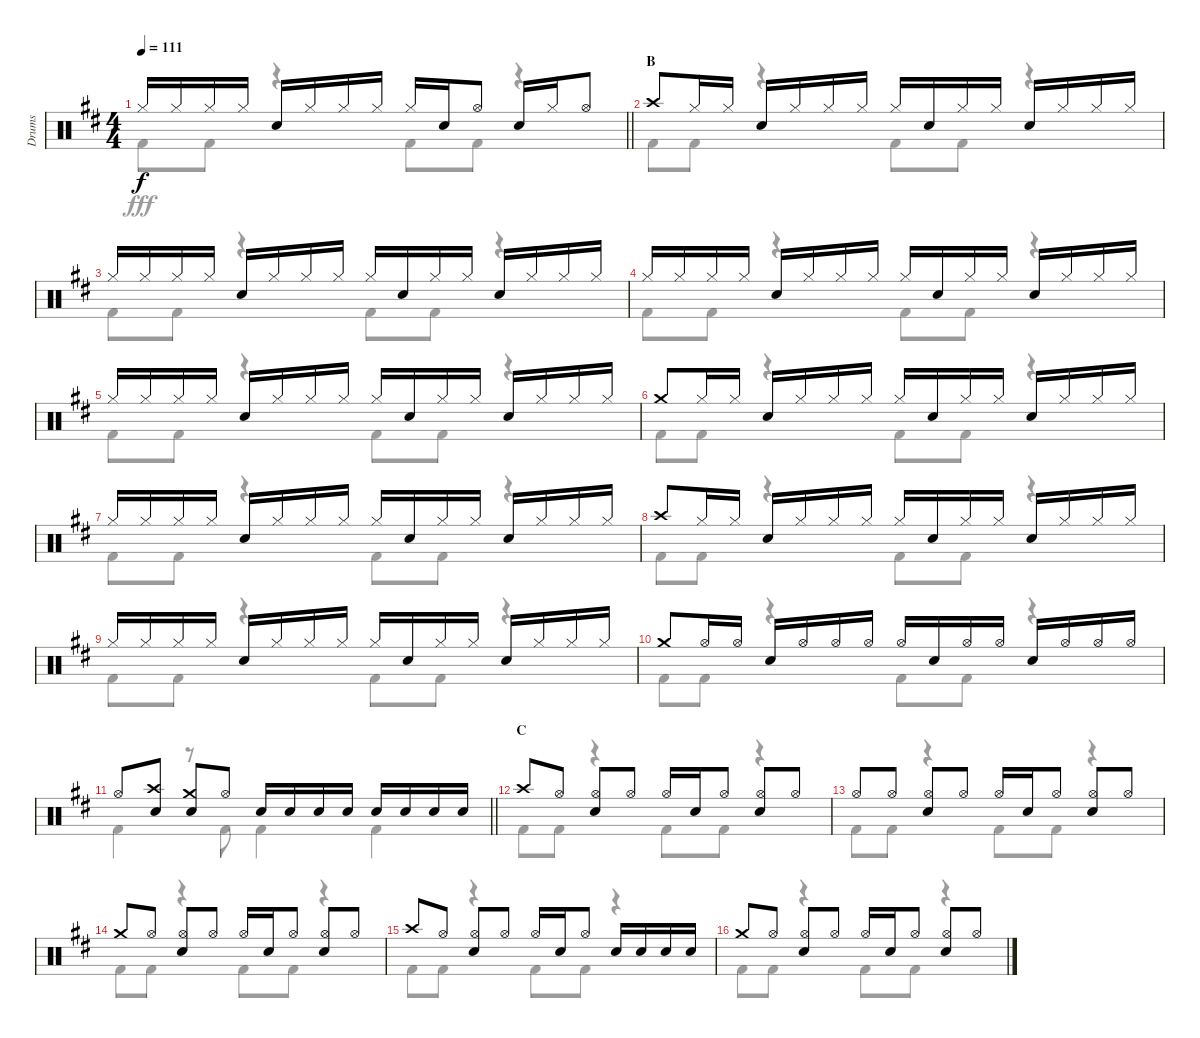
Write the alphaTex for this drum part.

\track ("Drums" "Drums") {instrument percussion}
\staff {score}
\articulation defaults
\voice
\ts (4 4)
\tempo 111
\clef neutral
\barLineRight lightlight
\ks d "Hi-Hat (closed)".16{dy f} "Hi-Hat (closed)".16 "Hi-Hat (closed)".16 "Hi-Hat (closed)".16 "Snare (hit) 2".16 "Hi-Hat (closed)".16 "Hi-Hat (closed)".16 "Hi-Hat (closed)".16 "Hi-Hat (closed)".16 "Snare (hit) 2".16 "Hi-Hat (open)".8 "Snare (hit) 2".16 "Hi-Hat (closed)".16 "Hi-Hat (open)".8
|
\section ("" "B")
"Crash high (hit)".8 "Hi-Hat (closed)".16 "Hi-Hat (closed)".16 "Snare (hit) 2".16 "Hi-Hat (closed)".16 "Hi-Hat (closed)".16 "Hi-Hat (closed)".16 "Hi-Hat (closed)".16 "Snare (hit) 2".16 "Hi-Hat (closed)".16 "Hi-Hat (closed)".16 "Snare (hit) 2".16 "Hi-Hat (closed)".16 "Hi-Hat (closed)".16 "Hi-Hat (closed)".16 |
"Hi-Hat (closed)".16 "Hi-Hat (closed)".16 "Hi-Hat (closed)".16 "Hi-Hat (closed)".16 "Snare (hit) 2".16 "Hi-Hat (closed)".16 "Hi-Hat (closed)".16 "Hi-Hat (closed)".16 "Hi-Hat (closed)".16 "Snare (hit) 2".16 "Hi-Hat (closed)".16 "Hi-Hat (closed)".16 "Snare (hit) 2".16 "Hi-Hat (closed)".16 "Hi-Hat (closed)".16 "Hi-Hat (closed)".16 |
"Hi-Hat (closed)".16 "Hi-Hat (closed)".16 "Hi-Hat (closed)".16 "Hi-Hat (closed)".16 "Snare (hit) 2".16 "Hi-Hat (closed)".16 "Hi-Hat (closed)".16 "Hi-Hat (closed)".16 "Hi-Hat (closed)".16 "Snare (hit) 2".16 "Hi-Hat (closed)".16 "Hi-Hat (closed)".16 "Snare (hit) 2".16 "Hi-Hat (closed)".16 "Hi-Hat (closed)".16 "Hi-Hat (closed)".16 |
"Hi-Hat (closed)".16 "Hi-Hat (closed)".16 "Hi-Hat (closed)".16 "Hi-Hat (closed)".16 "Snare (hit) 2".16 "Hi-Hat (closed)".16 "Hi-Hat (closed)".16 "Hi-Hat (closed)".16 "Hi-Hat (closed)".16 "Snare (hit) 2".16 "Hi-Hat (closed)".16 "Hi-Hat (closed)".16 "Snare (hit) 2".16 "Hi-Hat (closed)".16 "Hi-Hat (closed)".16 "Hi-Hat (closed)".16 |
"Crash medium (hit)".8 "Hi-Hat (closed)".16 "Hi-Hat (closed)".16 "Snare (hit) 2".16 "Hi-Hat (closed)".16 "Hi-Hat (closed)".16 "Hi-Hat (closed)".16 "Hi-Hat (closed)".16 "Snare (hit) 2".16 "Hi-Hat (closed)".16 "Hi-Hat (closed)".16 "Snare (hit) 2".16 "Hi-Hat (closed)".16 "Hi-Hat (closed)".16 "Hi-Hat (closed)".16 |
"Hi-Hat (closed)".16 "Hi-Hat (closed)".16 "Hi-Hat (closed)".16 "Hi-Hat (closed)".16 "Snare (hit) 2".16 "Hi-Hat (closed)".16 "Hi-Hat (closed)".16 "Hi-Hat (closed)".16 "Hi-Hat (closed)".16 "Snare (hit) 2".16 "Hi-Hat (closed)".16 "Hi-Hat (closed)".16 "Snare (hit) 2".16 "Hi-Hat (closed)".16 "Hi-Hat (closed)".16 "Hi-Hat (closed)".16 |
"Crash high (hit)".8 "Hi-Hat (closed)".16 "Hi-Hat (closed)".16 "Snare (hit) 2".16 "Hi-Hat (closed)".16 "Hi-Hat (closed)".16 "Hi-Hat (closed)".16 "Hi-Hat (closed)".16 "Snare (hit) 2".16 "Hi-Hat (closed)".16 "Hi-Hat (closed)".16 "Snare (hit) 2".16 "Hi-Hat (closed)".16 "Hi-Hat (closed)".16 "Hi-Hat (closed)".16 |
"Hi-Hat (closed)".16 "Hi-Hat (closed)".16 "Hi-Hat (closed)".16 "Hi-Hat (closed)".16 "Snare (hit) 2".16 "Hi-Hat (closed)".16 "Hi-Hat (closed)".16 "Hi-Hat (closed)".16 "Hi-Hat (closed)".16 "Snare (hit) 2".16 "Hi-Hat (closed)".16 "Hi-Hat (closed)".16 "Snare (hit) 2".16 "Hi-Hat (closed)".16 "Hi-Hat (closed)".16 "Hi-Hat (closed)".16 |
"Crash medium (hit)".8 "Hi-Hat (open)".16 "Hi-Hat (open)".16 "Snare (hit) 2".16 "Hi-Hat (open)".16 "Hi-Hat (open)".16 "Hi-Hat (open)".16 "Hi-Hat (open)".16 "Snare (hit) 2".16 "Hi-Hat (open)".16 "Hi-Hat (open)".16 "Snare (hit) 2".16 "Hi-Hat (open)".16 "Hi-Hat (open)".16 "Hi-Hat (open)".16 |
\barLineRight lightlight "Hi-Hat (open)".8
("Crash high (hit)" "Snare (hit) 2").8 ("Crash medium (hit)" "Snare (hit) 2").8 "Hi-Hat (open)".8 "Snare (hit) 2".16 "Snare (hit) 2".16 "Snare (hit) 2".16 "Snare (hit) 2".16 "Snare (hit) 2".16 "Snare (hit) 2".16 "Snare (hit) 2".16 "Snare (hit) 2".16 |
\section ("" "C")
"Crash high (hit)".8 "Hi-Hat (open)".8 ("Hi-Hat (open)" "Snare (hit) 2").8 "Hi-Hat (open)".8 "Hi-Hat (open)".16 "Snare (hit) 2".16 "Hi-Hat (open)".8 ("Hi-Hat (open)" "Snare (hit) 2").8 "Hi-Hat (open)".8 |
"Hi-Hat (open)".8 "Hi-Hat (open)".8 ("Hi-Hat (open)" "Snare (hit) 2").8 "Hi-Hat (open)".8 "Hi-Hat (open)".16 "Snare (hit) 2".16 "Hi-Hat (open)".8 ("Hi-Hat (open)" "Snare (hit) 2").8 "Hi-Hat (open)".8 |
"Crash medium (hit)".8 "Hi-Hat (open)".8 ("Hi-Hat (open)" "Snare (hit) 2").8 "Hi-Hat (open)".8 "Hi-Hat (open)".16 "Snare (hit) 2".16 "Hi-Hat (open)".8 ("Hi-Hat (open)" "Snare (hit) 2").8 "Hi-Hat (open)".8 |
"Crash high (hit)".8 "Hi-Hat (open)".8 ("Hi-Hat (open)" "Snare (hit) 2").8 "Hi-Hat (open)".8 "Hi-Hat (open)".16 "Snare (hit) 2".16 "Hi-Hat (open)".8 "Snare (hit) 2".16 "Snare (hit) 2".16 "Snare (hit) 2".16 "Snare (hit) 2".16 |
"Crash medium (hit)".8 "Hi-Hat (open)".8 ("Hi-Hat (open)" "Snare (hit) 2").8 "Hi-Hat (open)".8 "Hi-Hat (open)".16 "Snare (hit) 2".16 "Hi-Hat (open)".8 ("Hi-Hat (open)" "Snare (hit) 2").8 "Hi-Hat (open)".8
\voice
\clef neutral
\ottava regular
\simile none
\barLineRight lightlight
\ks d "Kick (hit) 2".8{dy fff} "Kick (hit) 2".8
r.4 "Kick (hit) 2".8 "Kick (hit) 2".8 r.4 |
"Kick (hit) 2".8 "Kick (hit) 2".8 r.4 "Kick (hit) 2".8 "Kick (hit) 2".8 r.4 |
"Kick (hit) 2".8 "Kick (hit) 2".8 r.4 "Kick (hit) 2".8 "Kick (hit) 2".8 r.4 |
"Kick (hit) 2".8 "Kick (hit) 2".8 r.4 "Kick (hit) 2".8 "Kick (hit) 2".8 r.4 |
"Kick (hit) 2".8 "Kick (hit) 2".8 r.4 "Kick (hit) 2".8 "Kick (hit) 2".8 r.4 |
"Kick (hit) 2".8 "Kick (hit) 2".8 r.4 "Kick (hit) 2".8 "Kick (hit) 2".8 r.4 |
"Kick (hit) 2".8 "Kick (hit) 2".8 r.4 "Kick (hit) 2".8 "Kick (hit) 2".8 r.4 |
"Kick (hit) 2".8 "Kick (hit) 2".8 r.4 "Kick (hit) 2".8 "Kick (hit) 2".8 r.4 |
"Kick (hit) 2".8 "Kick (hit) 2".8 r.4 "Kick (hit) 2".8 "Kick (hit) 2".8 r.4 |
"Kick (hit) 2".8 "Kick (hit) 2".8 r.4 "Kick (hit) 2".8 "Kick (hit) 2".8 r.4 |
\barLineRight lightlight "Kick (hit) 2".4
r.8 "Kick (hit) 2".8 "Kick (hit) 2".4 "Kick (hit) 2".4 |
"Kick (hit) 2".8 "Kick (hit) 2".8 r.4 "Kick (hit) 2".8 "Kick (hit) 2".8 r.4 |
"Kick (hit) 2".8 "Kick (hit) 2".8 r.4 "Kick (hit) 2".8 "Kick (hit) 2".8 r.4 |
"Kick (hit) 2".8 "Kick (hit) 2".8 r.4 "Kick (hit) 2".8 "Kick (hit) 2".8 r.4 |
"Kick (hit) 2".8 "Kick (hit) 2".8 r.4 "Kick (hit) 2".8 "Kick (hit) 2".8 r.4 |
"Kick (hit) 2".8 "Kick (hit) 2".8 r.4 "Kick (hit) 2".8 "Kick (hit) 2".8 r.4
